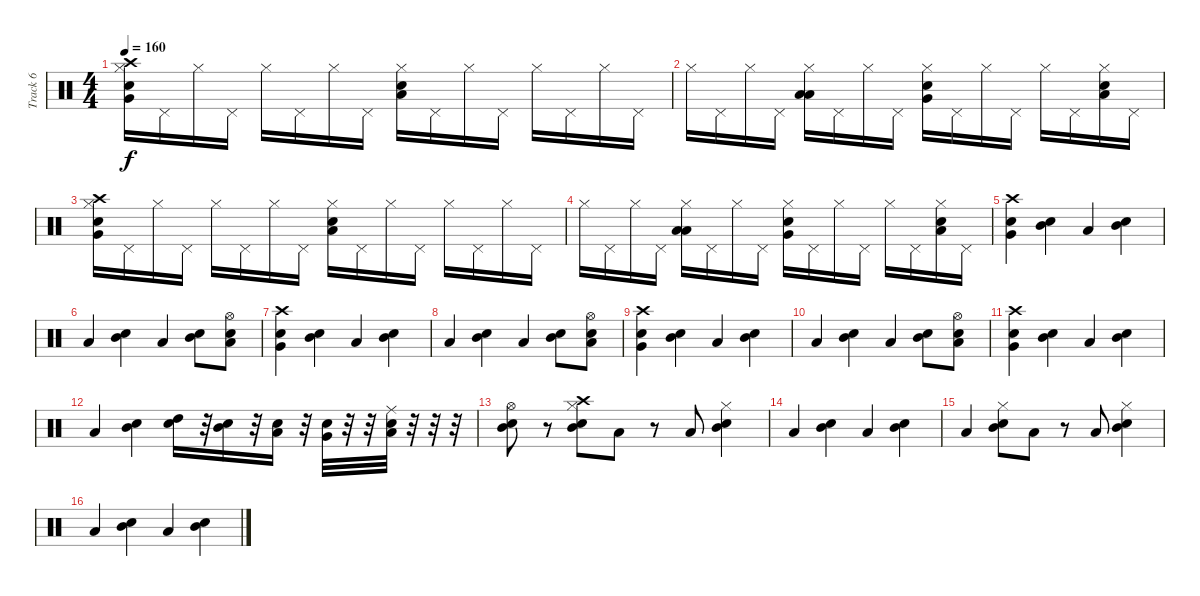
\track ("Track 6" "Track 6") {instrument percussion}
\staff {score}
\articulation defaults
\ts (4 4)
\tempo 160
\clef neutral
\ks c
("Very Low Tom (hit)" "Snare (hit) 2" "Crash high (hit)" "Hi-Hat (closed)").16{dy f} "Pedal Hi-Hat (hit)".16 "Hi-Hat (closed)".16 "Pedal Hi-Hat (hit)".16 "Hi-Hat (closed)".16 "Pedal Hi-Hat (hit)".16 "Hi-Hat (closed)".16 "Pedal Hi-Hat (hit)".16 ("Low Tom (hit)" "Snare (hit) 2" "Hi-Hat (closed)").16 "Pedal Hi-Hat (hit)".16 "Hi-Hat (closed)".16 "Pedal Hi-Hat (hit)".16 "Hi-Hat (closed)".16 "Pedal Hi-Hat (hit)".16 "Hi-Hat (closed)".16 "Pedal Hi-Hat (hit)".16 |
"Hi-Hat (closed)".16 "Pedal Hi-Hat (hit)".16 "Hi-Hat (closed)".16 "Pedal Hi-Hat (hit)".16 ("Hi-Hat (closed)" "Low Tom (hit)" "Low Floor Tom (hit)").16 "Pedal Hi-Hat (hit)".16 "Hi-Hat (closed)".16 "Pedal Hi-Hat (hit)".16 ("Hi-Hat (closed)" "Very Low Tom (hit)" "Snare (hit) 2").16 "Pedal Hi-Hat (hit)".16 "Hi-Hat (closed)".16 "Pedal Hi-Hat (hit)".16 "Hi-Hat (closed)".16 "Pedal Hi-Hat (hit)".16 ("Hi-Hat (closed)" "Low Tom (hit)" "Snare (hit) 2").16 "Pedal Hi-Hat (hit)".16 |
("Very Low Tom (hit)" "Snare (hit) 2" "Crash high (hit)" "Hi-Hat (closed)").16 "Pedal Hi-Hat (hit)".16 "Hi-Hat (closed)".16 "Pedal Hi-Hat (hit)".16 "Hi-Hat (closed)".16 "Pedal Hi-Hat (hit)".16 "Hi-Hat (closed)".16 "Pedal Hi-Hat (hit)".16 ("Low Tom (hit)" "Snare (hit) 2" "Hi-Hat (closed)").16 "Pedal Hi-Hat (hit)".16 "Hi-Hat (closed)".16 "Pedal Hi-Hat (hit)".16 "Hi-Hat (closed)".16 "Pedal Hi-Hat (hit)".16 "Hi-Hat (closed)".16 "Pedal Hi-Hat (hit)".16 |
"Hi-Hat (closed)".16 "Pedal Hi-Hat (hit)".16 "Hi-Hat (closed)".16 "Pedal Hi-Hat (hit)".16 ("Hi-Hat (closed)" "Low Tom (hit)" "Low Floor Tom (hit)").16 "Pedal Hi-Hat (hit)".16 "Hi-Hat (closed)".16 "Pedal Hi-Hat (hit)".16 ("Hi-Hat (closed)" "Very Low Tom (hit)" "Snare (hit) 2").16 "Pedal Hi-Hat (hit)".16 "Hi-Hat (closed)".16 "Pedal Hi-Hat (hit)".16 "Hi-Hat (closed)".16 "Pedal Hi-Hat (hit)".16 ("Hi-Hat (closed)" "Low Tom (hit)" "Snare (hit) 2").16 "Pedal Hi-Hat (hit)".16 |
("Very Low Tom (hit)" "Snare (hit) 2" "Crash high (hit)").4 ("Mid Tom (hit)" "Snare (hit) 2").4 "Low Tom (hit)".4 ("Mid Tom (hit)" "Snare (hit) 2").4 |
"Low Tom (hit)".4 ("Mid Tom (hit)" "Snare (hit) 2").4 "Low Tom (hit)".4 ("Mid Tom (hit)" "Snare (hit) 2").8 ("Hi-Hat (open)" "Low Tom (hit)" "Snare (hit) 2").8 |
("Very Low Tom (hit)" "Snare (hit) 2" "Crash high (hit)").4 ("Mid Tom (hit)" "Snare (hit) 2").4 "Low Tom (hit)".4 ("Mid Tom (hit)" "Snare (hit) 2").4 |
"Low Tom (hit)".4 ("Mid Tom (hit)" "Snare (hit) 2").4 "Low Tom (hit)".4 ("Mid Tom (hit)" "Snare (hit) 2").8 ("Hi-Hat (open)" "Low Tom (hit)" "Snare (hit) 2").8 |
("Very Low Tom (hit)" "Snare (hit) 2" "Crash high (hit)").4 ("Mid Tom (hit)" "Snare (hit) 2").4 "Low Tom (hit)".4 ("Mid Tom (hit)" "Snare (hit) 2").4 |
"Low Tom (hit)".4 ("Mid Tom (hit)" "Snare (hit) 2").4 "Low Tom (hit)".4 ("Mid Tom (hit)" "Snare (hit) 2").8 ("Hi-Hat (open)" "Low Tom (hit)" "Snare (hit) 2").8 |
("Very Low Tom (hit)" "Snare (hit) 2" "Crash high (hit)").4 ("Mid Tom (hit)" "Snare (hit) 2").4 "Low Tom (hit)".4 ("Mid Tom (hit)" "Snare (hit) 2").4 |
"Low Tom (hit)".4 ("Mid Tom (hit)" "Snare (hit) 2").4 ("High Tom (hit)" "Electric Snare (hit)").16 r.32 ("Mid Tom (hit)" "Electric Snare (hit)").16 r.32 ("Low Tom (hit)" "Electric Snare (hit)").16 r.32 ("Very Low Tom (hit)" "Electric Snare (hit)").32 r.32 r.32 ("Ride (middle)" "Low Tom (hit)" "Snare (hit) 2").32 r.32 r.32 r.32 |
("Mid Tom (hit)" "Hi-Hat (open)" "Snare (hit) 2").8 r.8 ("Mid Tom (hit)" "Hi-Hat (closed)" "Snare (hit) 2" "Crash high (hit)").8 "Low Tom (hit)".8 r.8 "Low Tom (hit)".8 ("Mid Tom (hit)" "Hi-Hat (closed)" "Snare (hit) 2").4 |
"Low Tom (hit)".4 ("Mid Tom (hit)" "Snare (hit) 2").4 "Low Tom (hit)".4 ("Mid Tom (hit)" "Snare (hit) 2").4 |
"Low Tom (hit)".4 ("Mid Tom (hit)" "Hi-Hat (closed)" "Snare (hit) 2").8 "Low Tom (hit)".8 r.8 "Low Tom (hit)".8 ("Mid Tom (hit)" "Hi-Hat (closed)" "Snare (hit) 2").4 |
"Low Tom (hit)".4 ("Mid Tom (hit)" "Snare (hit) 2").4 "Low Tom (hit)".4 ("Mid Tom (hit)" "Snare (hit) 2").4
